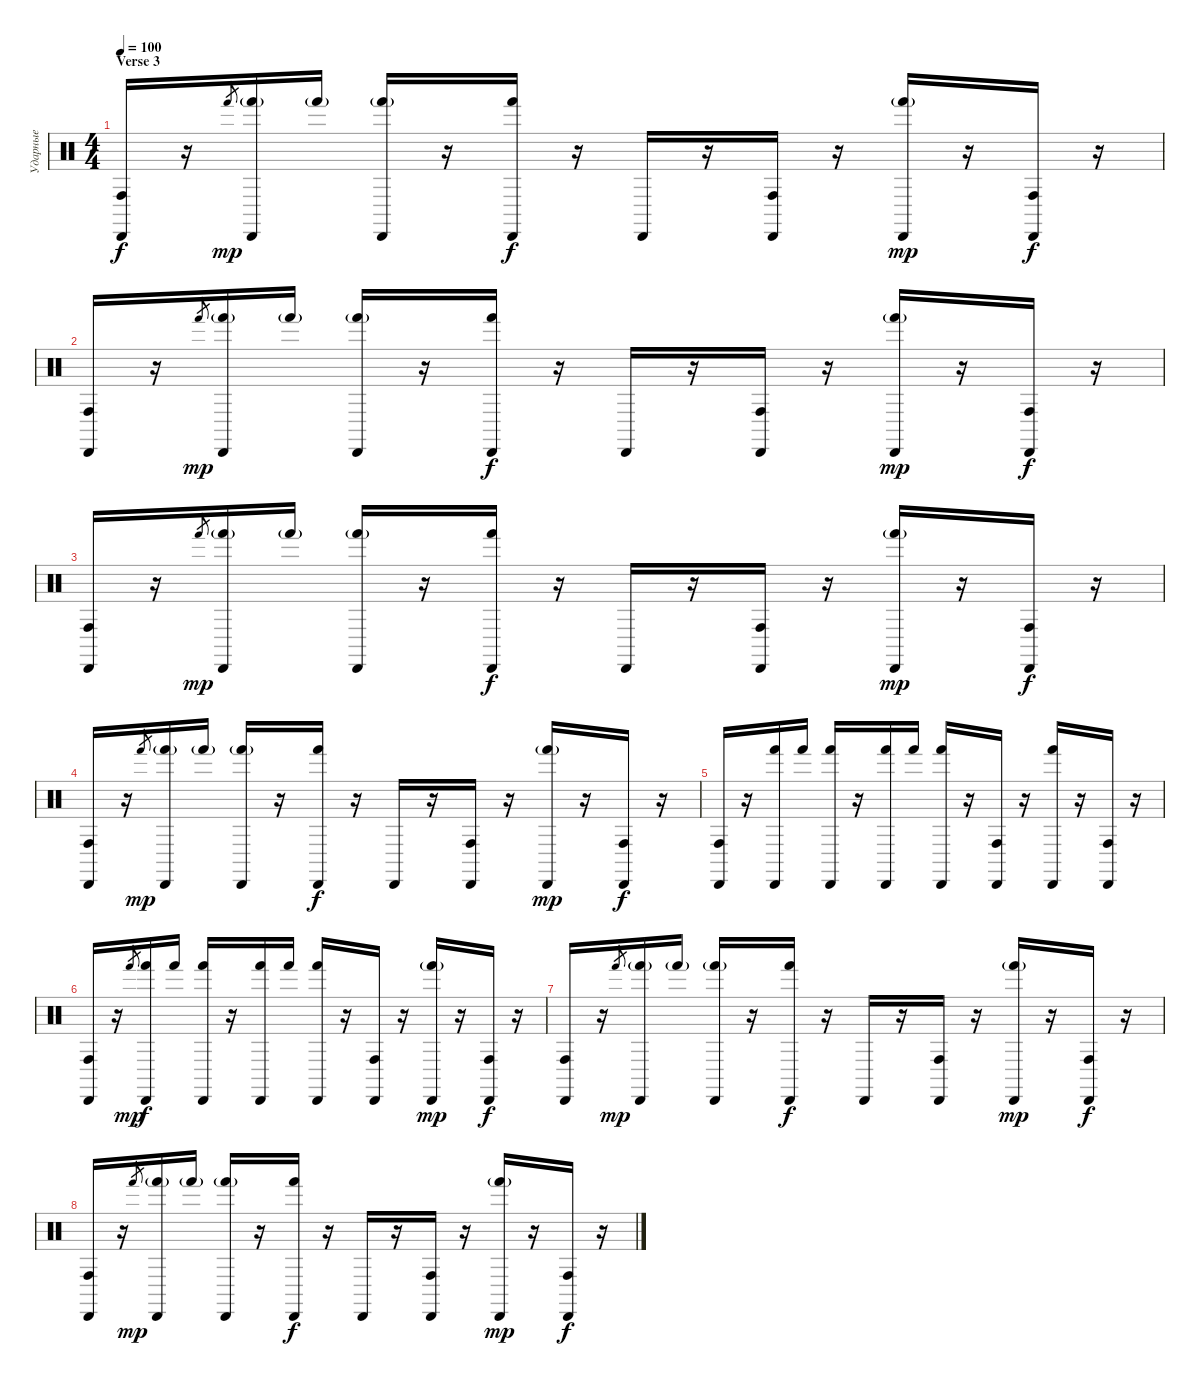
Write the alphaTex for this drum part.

\track ("Ударные" "Ударные") {instrument percussion}
\staff {score}
\articulation defaults
\ts (4 4)
\section ("" "Verse 3")
\tempo 100
\clef neutral
\ks c
("Conga high (hit)" "Cabasa (hit)").16{dy f} r.16 "Hand (hit)".8{gr dy mp} ("Hand (hit)"{g} "Cabasa (hit)").16 "Hand (hit)"{g}.16 ("Hand (hit)"{g} "Cabasa (hit)").16 r.16 ("Hand (hit)" "Cabasa (hit)").16{dy f} r.16 "Cabasa (hit)".16 r.16 ("Conga high (hit)" "Cabasa (hit)").16 r.16 ("Hand (hit)"{g} "Cabasa (hit)").16{dy mp} r.16 ("Conga high (hit)" "Cabasa (hit)").16{dy f} r.16 |
("Conga high (hit)" "Cabasa (hit)").16 r.16 "Hand (hit)".8{gr dy mp} ("Hand (hit)"{g} "Cabasa (hit)").16 "Hand (hit)"{g}.16 ("Hand (hit)"{g} "Cabasa (hit)").16 r.16 ("Hand (hit)" "Cabasa (hit)").16{dy f} r.16 "Cabasa (hit)".16 r.16 ("Conga high (hit)" "Cabasa (hit)").16 r.16 ("Hand (hit)"{g} "Cabasa (hit)").16{dy mp} r.16 ("Conga high (hit)" "Cabasa (hit)").16{dy f} r.16 |
("Conga high (hit)" "Cabasa (hit)").16 r.16 "Hand (hit)".8{gr dy mp} ("Hand (hit)"{g} "Cabasa (hit)").16 "Hand (hit)"{g}.16 ("Hand (hit)"{g} "Cabasa (hit)").16 r.16 ("Hand (hit)" "Cabasa (hit)").16{dy f} r.16 "Cabasa (hit)".16 r.16 ("Conga high (hit)" "Cabasa (hit)").16 r.16 ("Hand (hit)"{g} "Cabasa (hit)").16{dy mp} r.16 ("Conga high (hit)" "Cabasa (hit)").16{dy f} r.16 |
("Conga high (hit)" "Cabasa (hit)").16 r.16 "Hand (hit)".8{gr dy mp} ("Hand (hit)"{g} "Cabasa (hit)").16 "Hand (hit)"{g}.16 ("Hand (hit)"{g} "Cabasa (hit)").16 r.16 ("Hand (hit)" "Cabasa (hit)").16{dy f} r.16 "Cabasa (hit)".16 r.16 ("Conga high (hit)" "Cabasa (hit)").16 r.16 ("Hand (hit)"{g} "Cabasa (hit)").16{dy mp} r.16 ("Conga high (hit)" "Cabasa (hit)").16{dy f} r.16 |
("Conga high (hit)" "Cabasa (hit)").16 r.16 ("Hand (hit)" "Cabasa (hit)").16 "Hand (hit)".16 ("Hand (hit)" "Cabasa (hit)").16 r.16 ("Hand (hit)" "Cabasa (hit)").16 "Hand (hit)".16 ("Hand (hit)" "Cabasa (hit)").16 r.16 ("Conga high (hit)" "Cabasa (hit)").16 r.16 ("Hand (hit)" "Cabasa (hit)").16 r.16 ("Conga high (hit)" "Cabasa (hit)").16 r.16 |
("Conga high (hit)" "Cabasa (hit)").16 r.16 "Hand (hit)".8{gr dy mp} ("Hand (hit)" "Cabasa (hit)").16{dy f} "Hand (hit)".16 ("Hand (hit)" "Cabasa (hit)").16 r.16 ("Hand (hit)" "Cabasa (hit)").16 "Hand (hit)".16 ("Hand (hit)" "Cabasa (hit)").16 r.16 ("Conga high (hit)" "Cabasa (hit)").16 r.16 ("Hand (hit)"{g} "Cabasa (hit)").16{dy mp} r.16 ("Conga high (hit)" "Cabasa (hit)").16{dy f} r.16 |
("Conga high (hit)" "Cabasa (hit)").16 r.16 "Hand (hit)".8{gr dy mp} ("Hand (hit)"{g} "Cabasa (hit)").16 "Hand (hit)"{g}.16 ("Hand (hit)"{g} "Cabasa (hit)").16 r.16 ("Hand (hit)" "Cabasa (hit)").16{dy f} r.16 "Cabasa (hit)".16 r.16 ("Conga high (hit)" "Cabasa (hit)").16 r.16 ("Hand (hit)"{g} "Cabasa (hit)").16{dy mp} r.16 ("Conga high (hit)" "Cabasa (hit)").16{dy f} r.16 |
("Conga high (hit)" "Cabasa (hit)").16 r.16 "Hand (hit)".8{gr dy mp} ("Hand (hit)"{g} "Cabasa (hit)").16 "Hand (hit)"{g}.16 ("Hand (hit)"{g} "Cabasa (hit)").16 r.16 ("Hand (hit)" "Cabasa (hit)").16{dy f} r.16 "Cabasa (hit)".16 r.16 ("Conga high (hit)" "Cabasa (hit)").16 r.16 ("Hand (hit)"{g} "Cabasa (hit)").16{dy mp} r.16 ("Conga high (hit)" "Cabasa (hit)").16{dy f} r.16
